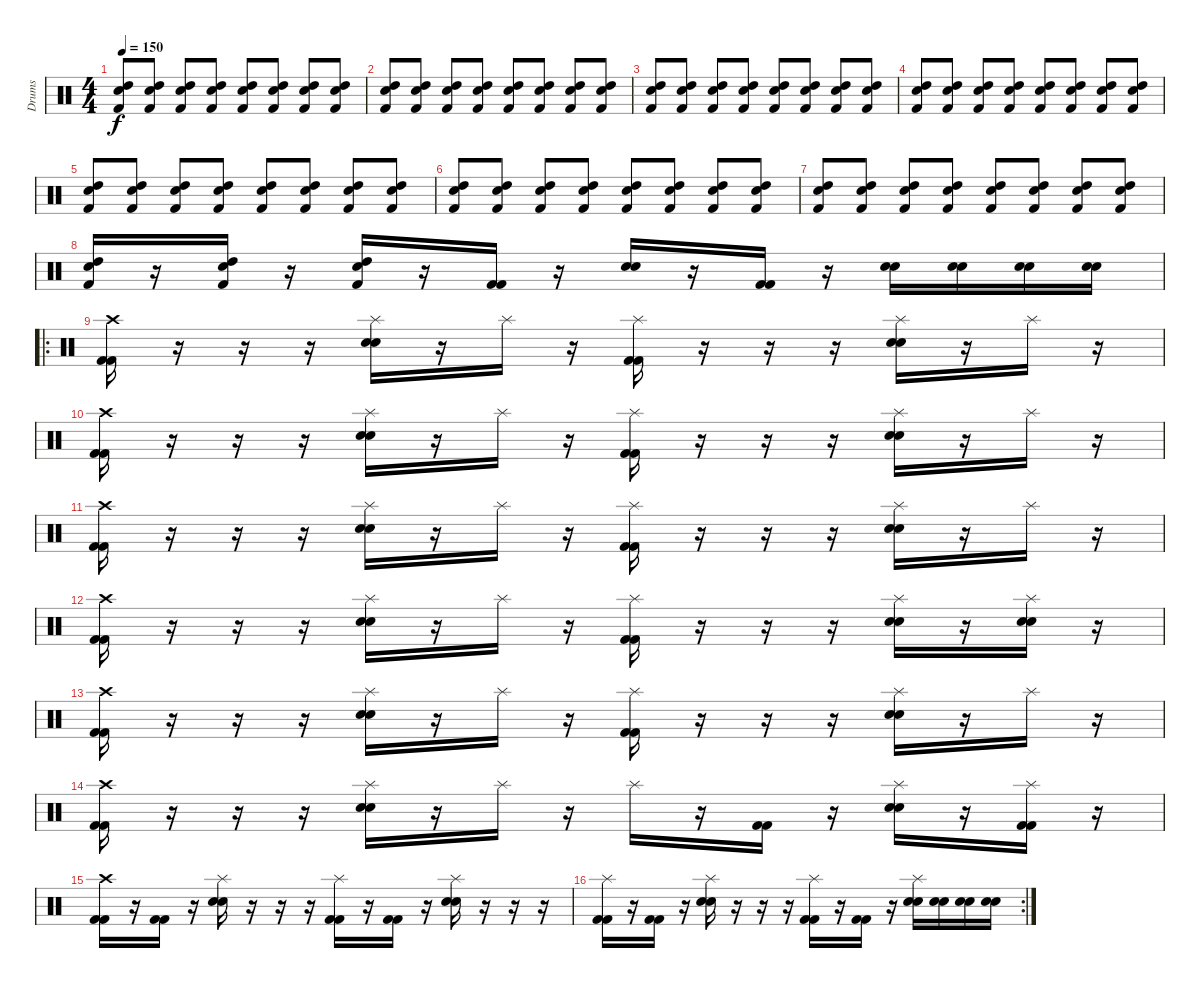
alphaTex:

\track ("Drums" "Drums") {instrument percussion}
\staff {score}
\articulation defaults
\ts (4 4)
\tempo 150
\clef neutral
\ks c
("High Tom (hit)" "Electric Snare (hit)" "Kick (hit) 2").8{dy f volume 14} ("High Tom (hit)" "Electric Snare (hit)" "Kick (hit) 2").8 ("High Tom (hit)" "Electric Snare (hit)" "Kick (hit) 2").8 ("High Tom (hit)" "Electric Snare (hit)" "Kick (hit) 2").8 ("High Tom (hit)" "Electric Snare (hit)" "Kick (hit) 2").8 ("High Tom (hit)" "Electric Snare (hit)" "Kick (hit) 2").8 ("High Tom (hit)" "Electric Snare (hit)" "Kick (hit) 2").8 ("High Tom (hit)" "Electric Snare (hit)" "Kick (hit) 2").8 |
("High Tom (hit)" "Electric Snare (hit)" "Kick (hit) 2").8 ("High Tom (hit)" "Electric Snare (hit)" "Kick (hit) 2").8 ("High Tom (hit)" "Electric Snare (hit)" "Kick (hit) 2").8 ("High Tom (hit)" "Electric Snare (hit)" "Kick (hit) 2").8 ("High Tom (hit)" "Electric Snare (hit)" "Kick (hit) 2").8 ("High Tom (hit)" "Electric Snare (hit)" "Kick (hit) 2").8 ("High Tom (hit)" "Electric Snare (hit)" "Kick (hit) 2").8 ("High Tom (hit)" "Electric Snare (hit)" "Kick (hit) 2").8 |
("High Tom (hit)" "Electric Snare (hit)" "Kick (hit) 2").8 ("High Tom (hit)" "Electric Snare (hit)" "Kick (hit) 2").8 ("High Tom (hit)" "Electric Snare (hit)" "Kick (hit) 2").8 ("High Tom (hit)" "Electric Snare (hit)" "Kick (hit) 2").8 ("High Tom (hit)" "Electric Snare (hit)" "Kick (hit) 2").8 ("High Tom (hit)" "Electric Snare (hit)" "Kick (hit) 2").8 ("High Tom (hit)" "Electric Snare (hit)" "Kick (hit) 2").8 ("High Tom (hit)" "Electric Snare (hit)" "Kick (hit) 2").8 |
("High Tom (hit)" "Electric Snare (hit)" "Kick (hit) 2").8 ("High Tom (hit)" "Electric Snare (hit)" "Kick (hit) 2").8 ("High Tom (hit)" "Electric Snare (hit)" "Kick (hit) 2").8 ("High Tom (hit)" "Electric Snare (hit)" "Kick (hit) 2").8 ("High Tom (hit)" "Electric Snare (hit)" "Kick (hit) 2").8 ("High Tom (hit)" "Electric Snare (hit)" "Kick (hit) 2").8 ("High Tom (hit)" "Electric Snare (hit)" "Kick (hit) 2").8 ("High Tom (hit)" "Electric Snare (hit)" "Kick (hit) 2").8 |
("High Tom (hit)" "Electric Snare (hit)" "Kick (hit) 2").8 ("High Tom (hit)" "Electric Snare (hit)" "Kick (hit) 2").8 ("High Tom (hit)" "Electric Snare (hit)" "Kick (hit) 2").8 ("High Tom (hit)" "Electric Snare (hit)" "Kick (hit) 2").8 ("High Tom (hit)" "Electric Snare (hit)" "Kick (hit) 2").8 ("High Tom (hit)" "Electric Snare (hit)" "Kick (hit) 2").8 ("High Tom (hit)" "Electric Snare (hit)" "Kick (hit) 2").8 ("High Tom (hit)" "Electric Snare (hit)" "Kick (hit) 2").8 |
("High Tom (hit)" "Electric Snare (hit)" "Kick (hit) 2").8 ("High Tom (hit)" "Electric Snare (hit)" "Kick (hit) 2").8 ("High Tom (hit)" "Electric Snare (hit)" "Kick (hit) 2").8 ("High Tom (hit)" "Electric Snare (hit)" "Kick (hit) 2").8 ("High Tom (hit)" "Electric Snare (hit)" "Kick (hit) 2").8 ("High Tom (hit)" "Electric Snare (hit)" "Kick (hit) 2").8 ("High Tom (hit)" "Electric Snare (hit)" "Kick (hit) 2").8 ("High Tom (hit)" "Electric Snare (hit)" "Kick (hit) 2").8 |
("High Tom (hit)" "Electric Snare (hit)" "Kick (hit) 2").8 ("High Tom (hit)" "Electric Snare (hit)" "Kick (hit) 2").8 ("High Tom (hit)" "Electric Snare (hit)" "Kick (hit) 2").8 ("High Tom (hit)" "Electric Snare (hit)" "Kick (hit) 2").8 ("High Tom (hit)" "Electric Snare (hit)" "Kick (hit) 2").8 ("High Tom (hit)" "Electric Snare (hit)" "Kick (hit) 2").8 ("High Tom (hit)" "Electric Snare (hit)" "Kick (hit) 2").8 ("High Tom (hit)" "Electric Snare (hit)" "Kick (hit) 2").8 |
("High Tom (hit)" "Electric Snare (hit)" "Kick (hit) 2").16 r.16 ("High Tom (hit)" "Electric Snare (hit)" "Kick (hit) 2").16 r.16 ("High Tom (hit)" "Electric Snare (hit)" "Kick (hit) 2").16 r.16 ("Kick (hit) 2" "Kick (hit) 2").16 r.16 ("Electric Snare (hit)" "Electric Snare (hit)").16 r.16 ("Kick (hit) 2" "Kick (hit) 2").16 r.16 ("Electric Snare (hit)" "Electric Snare (hit)").16 ("Electric Snare (hit)" "Electric Snare (hit)").16 ("Electric Snare (hit)" "Electric Snare (hit)").16 ("Electric Snare (hit)" "Electric Snare (hit)").16 |
\ro
("Crash high (hit)" "Kick (hit) 2" "Kick (hit) 2").16 r.16 r.16 r.16 ("Splash (hit)" "Electric Snare (hit)" "Electric Snare (hit)").16 r.16 "Splash (hit)".16 r.16 ("Splash (hit)" "Kick (hit) 2" "Kick (hit) 2").16 r.16 r.16 r.16 ("Splash (hit)" "Electric Snare (hit)" "Electric Snare (hit)").16 r.16 "Splash (hit)".16 r.16 |
("Crash high (hit)" "Kick (hit) 2" "Kick (hit) 2").16 r.16 r.16 r.16 ("Splash (hit)" "Electric Snare (hit)" "Electric Snare (hit)").16 r.16 "Splash (hit)".16 r.16 ("Splash (hit)" "Kick (hit) 2" "Kick (hit) 2").16 r.16 r.16 r.16 ("Splash (hit)" "Electric Snare (hit)" "Electric Snare (hit)").16 r.16 "Splash (hit)".16 r.16 |
("Crash high (hit)" "Kick (hit) 2" "Kick (hit) 2").16 r.16 r.16 r.16 ("Splash (hit)" "Electric Snare (hit)" "Electric Snare (hit)").16 r.16 "Splash (hit)".16 r.16 ("Splash (hit)" "Kick (hit) 2" "Kick (hit) 2").16 r.16 r.16 r.16 ("Splash (hit)" "Electric Snare (hit)" "Electric Snare (hit)").16 r.16 "Splash (hit)".16 r.16 |
("Crash high (hit)" "Kick (hit) 2" "Kick (hit) 2").16 r.16 r.16 r.16 ("Splash (hit)" "Electric Snare (hit)" "Electric Snare (hit)").16 r.16 "Splash (hit)".16 r.16 ("Splash (hit)" "Kick (hit) 2" "Kick (hit) 2").16 r.16 r.16 r.16 ("Splash (hit)" "Electric Snare (hit)" "Electric Snare (hit)").16 r.16 ("Splash (hit)" "Electric Snare (hit)" "Electric Snare (hit)").16 r.16 |
("Crash high (hit)" "Kick (hit) 2" "Kick (hit) 2").16 r.16 r.16 r.16 ("Splash (hit)" "Electric Snare (hit)" "Electric Snare (hit)").16 r.16 "Splash (hit)".16 r.16 ("Splash (hit)" "Kick (hit) 2" "Kick (hit) 2").16 r.16 r.16 r.16 ("Splash (hit)" "Electric Snare (hit)" "Electric Snare (hit)").16 r.16 "Splash (hit)".16 r.16 |
("Crash high (hit)" "Kick (hit) 2" "Kick (hit) 2").16 r.16 r.16 r.16 ("Splash (hit)" "Electric Snare (hit)" "Electric Snare (hit)").16 r.16 "Splash (hit)".16 r.16 "Splash (hit)".16 r.16 ("Kick (hit) 2" "Kick (hit) 2").16 r.16 ("Splash (hit)" "Electric Snare (hit)" "Electric Snare (hit)").16 r.16 ("Splash (hit)" "Kick (hit) 2" "Kick (hit) 2").16 r.16 |
("Crash high (hit)" "Kick (hit) 2" "Kick (hit) 2").16 r.16 ("Kick (hit) 2" "Kick (hit) 2").16 r.16 ("Splash (hit)" "Electric Snare (hit)" "Electric Snare (hit)").16 r.16 r.16 r.16 ("Splash (hit)" "Kick (hit) 2" "Kick (hit) 2").16 r.16 ("Kick (hit) 2" "Kick (hit) 2").16 r.16 ("Splash (hit)" "Electric Snare (hit)" "Electric Snare (hit)").16 r.16 r.16 r.16 |
\rc 2
("Splash (hit)" "Kick (hit) 2" "Kick (hit) 2").16 r.16 ("Kick (hit) 2" "Kick (hit) 2").16 r.16 ("Splash (hit)" "Electric Snare (hit)" "Electric Snare (hit)").16 r.16 r.16 r.16 ("Splash (hit)" "Kick (hit) 2" "Kick (hit) 2").16 r.16 ("Kick (hit) 2" "Kick (hit) 2").16 r.16 ("Splash (hit)" "Electric Snare (hit)" "Electric Snare (hit)").16 ("Electric Snare (hit)" "Electric Snare (hit)").16 ("Electric Snare (hit)" "Electric Snare (hit)").16 ("Electric Snare (hit)" "Electric Snare (hit)").16
